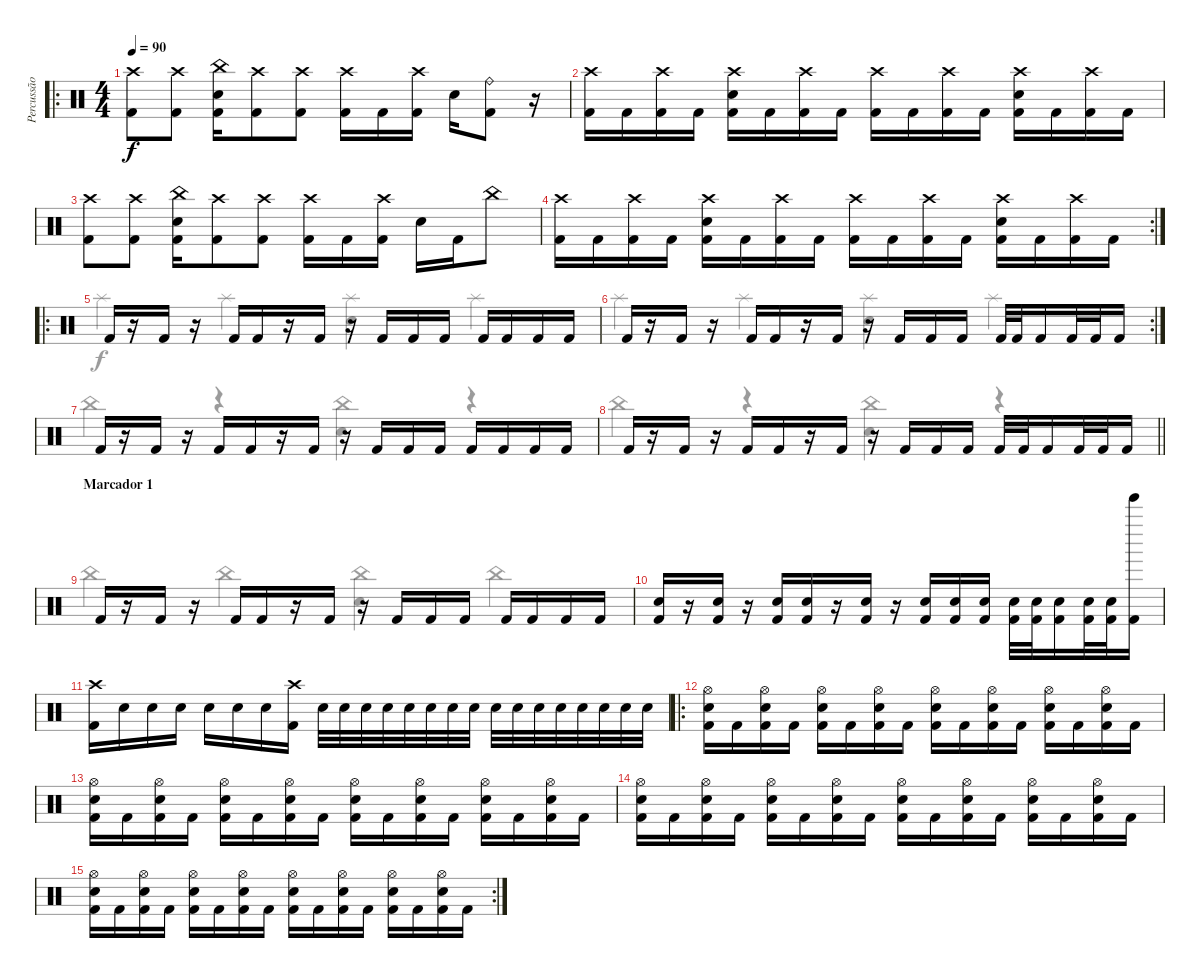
\track ("Percussão" "Percussão") {instrument percussion}
\staff {score}
\articulation defaults
\voice
\ro
\ts (4 4)
\tempo 90
\clef neutral
\ks c
("Crash high (hit)" "Kick (hit) 2").8{dy f} ("Crash high (hit)" "Kick (hit) 2").8 ("Snare (hit) 2" "China (hit)" "Kick (hit) 2").16 ("Crash high (hit)" "Kick (hit) 2").8 ("Crash high (hit)" "Kick (hit) 2").8 ("Crash high (hit)" "Kick (hit) 2").16 "Kick (hit) 2".16 ("Crash high (hit)" "Kick (hit) 2").16 "Snare (hit) 2".16 ("Ride (bell)" "Kick (hit) 2").8 r.16 |
("Crash high (hit)" "Kick (hit) 2").16 "Kick (hit) 2".16 ("Crash high (hit)" "Kick (hit) 2").16 "Kick (hit) 2".16 ("Crash high (hit)" "Snare (hit) 2" "Kick (hit) 2").16 "Kick (hit) 2".16 ("Crash high (hit)" "Kick (hit) 2").16 "Kick (hit) 2".16 ("Crash high (hit)" "Kick (hit) 2").16 "Kick (hit) 2".16 ("Crash high (hit)" "Kick (hit) 2").16 "Kick (hit) 2".16 ("Crash high (hit)" "Snare (hit) 2" "Kick (hit) 2").16 "Kick (hit) 2".16 ("Crash high (hit)" "Kick (hit) 2").16 "Kick (hit) 2".16 |
("Crash high (hit)" "Kick (hit) 2").8 ("Crash high (hit)" "Kick (hit) 2").8 ("Snare (hit) 2" "China (hit)" "Kick (hit) 2").16 ("Crash high (hit)" "Kick (hit) 2").8 ("Crash high (hit)" "Kick (hit) 2").8 ("Crash high (hit)" "Kick (hit) 2").16 "Kick (hit) 2".16 ("Crash high (hit)" "Kick (hit) 2").16 "Snare (hit) 2".16 "Kick (hit) 2".16 "China (hit)".8 |
\rc 2
("Crash high (hit)" "Kick (hit) 2").16 "Kick (hit) 2".16 ("Crash high (hit)" "Kick (hit) 2").16 "Kick (hit) 2".16 ("Crash high (hit)" "Snare (hit) 2" "Kick (hit) 2").16 "Kick (hit) 2".16 ("Crash high (hit)" "Kick (hit) 2").16 "Kick (hit) 2".16 ("Crash high (hit)" "Kick (hit) 2").16 "Kick (hit) 2".16 ("Crash high (hit)" "Kick (hit) 2").16 "Kick (hit) 2".16 ("Crash high (hit)" "Snare (hit) 2" "Kick (hit) 2").16 "Kick (hit) 2".16 ("Crash high (hit)" "Kick (hit) 2").16 "Kick (hit) 2".16 |
\ro "Kick (hit) 2".16
r.16 "Kick (hit) 2".16 r.16 "Kick (hit) 2".16 "Kick (hit) 2".16 r.16 "Kick (hit) 2".16 r.16 "Kick (hit) 2".16 "Kick (hit) 2".16 "Kick (hit) 2".16 "Kick (hit) 2".16 "Kick (hit) 2".16 "Kick (hit) 2".16 "Kick (hit) 2".16 |
\rc 2 "Kick (hit) 2".16
r.16 "Kick (hit) 2".16 r.16 "Kick (hit) 2".16 "Kick (hit) 2".16 r.16 "Kick (hit) 2".16 r.16 "Kick (hit) 2".16 "Kick (hit) 2".16 "Kick (hit) 2".16 "Kick (hit) 2".32 "Kick (hit) 2".32 "Kick (hit) 2".16 "Kick (hit) 2".32 "Kick (hit) 2".32 "Kick (hit) 2".16 |
"Kick (hit) 2".16 r.16 "Kick (hit) 2".16 r.16 "Kick (hit) 2".16 "Kick (hit) 2".16 r.16 "Kick (hit) 2".16 r.16 "Kick (hit) 2".16 "Kick (hit) 2".16 "Kick (hit) 2".16 "Kick (hit) 2".16 "Kick (hit) 2".16 "Kick (hit) 2".16 "Kick (hit) 2".16 |
\barLineRight lightlight "Kick (hit) 2".16
r.16 "Kick (hit) 2".16 r.16 "Kick (hit) 2".16 "Kick (hit) 2".16 r.16 "Kick (hit) 2".16 r.16 "Kick (hit) 2".16 "Kick (hit) 2".16 "Kick (hit) 2".16 "Kick (hit) 2".32 "Kick (hit) 2".32 "Kick (hit) 2".16 "Kick (hit) 2".32 "Kick (hit) 2".32 "Kick (hit) 2".16 |
\section ("" "Marcador 1")
"Kick (hit) 2".16 r.16 "Kick (hit) 2".16 r.16 "Kick (hit) 2".16 "Kick (hit) 2".16 r.16 "Kick (hit) 2".16 r.16 "Kick (hit) 2".16 "Kick (hit) 2".16 "Kick (hit) 2".16 "Kick (hit) 2".16 "Kick (hit) 2".16 "Kick (hit) 2".16 "Kick (hit) 2".16 |
("Snare (hit) 2" "Kick (hit) 2").16 r.16 ("Snare (hit) 2" "Kick (hit) 2").16 r.16 ("Snare (hit) 2" "Kick (hit) 2").16 ("Snare (hit) 2" "Kick (hit) 2").16 r.16 ("Snare (hit) 2" "Kick (hit) 2").16 r.16 ("Snare (hit) 2" "Kick (hit) 2").16 ("Snare (hit) 2" "Kick (hit) 2").16 ("Snare (hit) 2" "Kick (hit) 2").16 ("Snare (hit) 2" "Kick (hit) 2").32 ("Snare (hit) 2" "Kick (hit) 2").32 ("Snare (hit) 2" "Kick (hit) 2").16 ("Snare (hit) 2" "Kick (hit) 2").32 ("Snare (hit) 2" "Kick (hit) 2").32 ("Tinkle Bell (hit)" "Kick (hit) 2").16 |
("Crash high (hit)" "Kick (hit) 2").16 "Snare (hit) 2".16 "Snare (hit) 2".16 "Snare (hit) 2".16 "Snare (hit) 2".16 "Snare (hit) 2".16 "Snare (hit) 2".16 ("Crash high (hit)" "Kick (hit) 2").16 "Snare (hit) 2".32 "Snare (hit) 2".32 "Snare (hit) 2".32 "Snare (hit) 2".32 "Snare (hit) 2".32 "Snare (hit) 2".32 "Snare (hit) 2".32 "Snare (hit) 2".32 "Snare (hit) 2".32 "Snare (hit) 2".32 "Snare (hit) 2".32 "Snare (hit) 2".32 "Snare (hit) 2".32 "Snare (hit) 2".32 "Snare (hit) 2".32 "Snare (hit) 2".32 |
\ro
("Kick (hit) 2" "Snare (hit) 2" "Hi-Hat (open)").16 "Kick (hit) 2".16 ("Kick (hit) 2" "Snare (hit) 2" "Hi-Hat (open)").16 "Kick (hit) 2".16 ("Kick (hit) 2" "Snare (hit) 2" "Hi-Hat (open)").16 "Kick (hit) 2".16 ("Kick (hit) 2" "Snare (hit) 2" "Hi-Hat (open)").16 "Kick (hit) 2".16 ("Kick (hit) 2" "Snare (hit) 2" "Hi-Hat (open)").16 "Kick (hit) 2".16 ("Kick (hit) 2" "Snare (hit) 2" "Hi-Hat (open)").16 "Kick (hit) 2".16 ("Kick (hit) 2" "Snare (hit) 2" "Hi-Hat (open)").16 "Kick (hit) 2".16 ("Kick (hit) 2" "Snare (hit) 2" "Hi-Hat (open)").16 "Kick (hit) 2".16 |
("Kick (hit) 2" "Snare (hit) 2" "Hi-Hat (open)").16 "Kick (hit) 2".16 ("Kick (hit) 2" "Snare (hit) 2" "Hi-Hat (open)").16 "Kick (hit) 2".16 ("Kick (hit) 2" "Snare (hit) 2" "Hi-Hat (open)").16 "Kick (hit) 2".16 ("Kick (hit) 2" "Snare (hit) 2" "Hi-Hat (open)").16 "Kick (hit) 2".16 ("Kick (hit) 2" "Snare (hit) 2" "Hi-Hat (open)").16 "Kick (hit) 2".16 ("Kick (hit) 2" "Snare (hit) 2" "Hi-Hat (open)").16 "Kick (hit) 2".16 ("Kick (hit) 2" "Snare (hit) 2" "Hi-Hat (open)").16 "Kick (hit) 2".16 ("Kick (hit) 2" "Snare (hit) 2" "Hi-Hat (open)").16 "Kick (hit) 2".16 |
("Kick (hit) 2" "Snare (hit) 2" "Hi-Hat (open)").16 "Kick (hit) 2".16 ("Kick (hit) 2" "Snare (hit) 2" "Hi-Hat (open)").16 "Kick (hit) 2".16 ("Kick (hit) 2" "Snare (hit) 2" "Hi-Hat (open)").16 "Kick (hit) 2".16 ("Kick (hit) 2" "Snare (hit) 2" "Hi-Hat (open)").16 "Kick (hit) 2".16 ("Kick (hit) 2" "Snare (hit) 2" "Hi-Hat (open)").16 "Kick (hit) 2".16 ("Kick (hit) 2" "Snare (hit) 2" "Hi-Hat (open)").16 "Kick (hit) 2".16 ("Kick (hit) 2" "Snare (hit) 2" "Hi-Hat (open)").16 "Kick (hit) 2".16 ("Kick (hit) 2" "Snare (hit) 2" "Hi-Hat (open)").16 "Kick (hit) 2".16 |
\rc 2
("Kick (hit) 2" "Snare (hit) 2" "Hi-Hat (open)").16 "Kick (hit) 2".16 ("Kick (hit) 2" "Snare (hit) 2" "Hi-Hat (open)").16 "Kick (hit) 2".16 ("Kick (hit) 2" "Snare (hit) 2" "Hi-Hat (open)").16 "Kick (hit) 2".16 ("Kick (hit) 2" "Snare (hit) 2" "Hi-Hat (open)").16 "Kick (hit) 2".16 ("Kick (hit) 2" "Snare (hit) 2" "Hi-Hat (open)").16 "Kick (hit) 2".16 ("Kick (hit) 2" "Snare (hit) 2" "Hi-Hat (open)").16 "Kick (hit) 2".16 ("Kick (hit) 2" "Snare (hit) 2" "Hi-Hat (open)").16 "Kick (hit) 2".16 ("Kick (hit) 2" "Snare (hit) 2" "Hi-Hat (open)").16 "Kick (hit) 2".16 |
\voice
\clef neutral
\ottava regular
\simile none
\ks c
|
|
|
|
"Splash (hit)".4 "Splash (hit)".4 ("Splash (hit)" "Snare (hit) 2").4 "Splash (hit)".4 |
"Splash (hit)".4 "Splash (hit)".4 ("Splash (hit)" "Snare (hit) 2").4 "Splash (hit)".4 |
"China (hit)".4 r.4 ("China (hit)" "Snare (hit) 2").4 r.4 |
\barLineRight lightlight "China (hit)".4
r.4 ("China (hit)" "Snare (hit) 2").4 r.4 |
"China (hit)".4 "China (hit)".4 ("China (hit)" "Snare (hit) 2").4 "China (hit)".4 |
|
|
|
|
|
|
